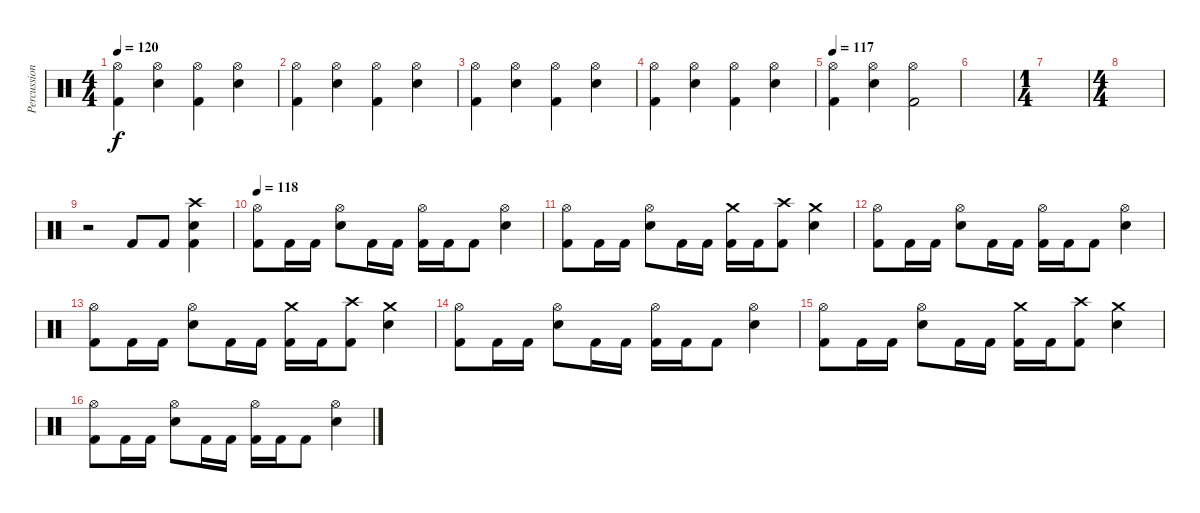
\track ("Percussions" "Percussion") {instrument percussion}
\staff {score}
\articulation defaults
\ts (4 4)
\tempo 120
\clef neutral
\ks c
("Hi-Hat (open)" "Kick (hit) 2").4{dy f} ("Hi-Hat (open)" "Snare (hit) 2").4 ("Hi-Hat (open)" "Kick (hit) 2").4 ("Hi-Hat (open)" "Snare (hit) 2").4 |
("Hi-Hat (open)" "Kick (hit) 2").4 ("Hi-Hat (open)" "Snare (hit) 2").4 ("Hi-Hat (open)" "Kick (hit) 2").4 ("Hi-Hat (open)" "Snare (hit) 2").4 |
("Hi-Hat (open)" "Kick (hit) 2").4 ("Hi-Hat (open)" "Snare (hit) 2").4 ("Hi-Hat (open)" "Kick (hit) 2").4 ("Hi-Hat (open)" "Snare (hit) 2").4 |
("Hi-Hat (open)" "Kick (hit) 2").4 ("Hi-Hat (open)" "Snare (hit) 2").4 ("Hi-Hat (open)" "Kick (hit) 2").4 ("Hi-Hat (open)" "Snare (hit) 2").4 |
\tempo 117
("Hi-Hat (open)" "Kick (hit) 2").4 ("Hi-Hat (open)" "Snare (hit) 2").4 ("Hi-Hat (open)" "Kick (hit) 2").2 |
|
\ts (1 4)
|
\ts (4 4)
|
r.2 "Kick (hit) 2".8 "Kick (hit) 2".8 ("Crash high (hit)" "Snare (hit) 2" "Kick (hit) 2").4 |
\tempo 118
("Hi-Hat (open)" "Kick (hit) 2").8 "Kick (hit) 2".16 "Kick (hit) 2".16 ("Hi-Hat (open)" "Snare (hit) 2").8 "Kick (hit) 2".16 "Kick (hit) 2".16 ("Hi-Hat (open)" "Kick (hit) 2").16 "Kick (hit) 2".16 "Kick (hit) 2".8 ("Hi-Hat (open)" "Snare (hit) 2").4 |
("Hi-Hat (open)" "Kick (hit) 2").8 "Kick (hit) 2".16 "Kick (hit) 2".16 ("Hi-Hat (open)" "Snare (hit) 2").8 "Kick (hit) 2".16 "Kick (hit) 2".16 ("Crash medium (hit)" "Kick (hit) 2").16 "Kick (hit) 2".16 ("Crash high (hit)" "Kick (hit) 2").8 ("Crash medium (hit)" "Snare (hit) 2").4 |
("Hi-Hat (open)" "Kick (hit) 2").8 "Kick (hit) 2".16 "Kick (hit) 2".16 ("Hi-Hat (open)" "Snare (hit) 2").8 "Kick (hit) 2".16 "Kick (hit) 2".16 ("Hi-Hat (open)" "Kick (hit) 2").16 "Kick (hit) 2".16 "Kick (hit) 2".8 ("Hi-Hat (open)" "Snare (hit) 2").4 |
("Hi-Hat (open)" "Kick (hit) 2").8 "Kick (hit) 2".16 "Kick (hit) 2".16 ("Hi-Hat (open)" "Snare (hit) 2").8 "Kick (hit) 2".16 "Kick (hit) 2".16 ("Crash medium (hit)" "Kick (hit) 2").16 "Kick (hit) 2".16 ("Crash high (hit)" "Kick (hit) 2").8 ("Crash medium (hit)" "Snare (hit) 2").4 |
("Hi-Hat (open)" "Kick (hit) 2").8 "Kick (hit) 2".16 "Kick (hit) 2".16 ("Hi-Hat (open)" "Snare (hit) 2").8 "Kick (hit) 2".16 "Kick (hit) 2".16 ("Hi-Hat (open)" "Kick (hit) 2").16 "Kick (hit) 2".16 "Kick (hit) 2".8 ("Hi-Hat (open)" "Snare (hit) 2").4 |
("Hi-Hat (open)" "Kick (hit) 2").8 "Kick (hit) 2".16 "Kick (hit) 2".16 ("Hi-Hat (open)" "Snare (hit) 2").8 "Kick (hit) 2".16 "Kick (hit) 2".16 ("Crash medium (hit)" "Kick (hit) 2").16 "Kick (hit) 2".16 ("Crash high (hit)" "Kick (hit) 2").8 ("Crash medium (hit)" "Snare (hit) 2").4 |
("Hi-Hat (open)" "Kick (hit) 2").8 "Kick (hit) 2".16 "Kick (hit) 2".16 ("Hi-Hat (open)" "Snare (hit) 2").8 "Kick (hit) 2".16 "Kick (hit) 2".16 ("Hi-Hat (open)" "Kick (hit) 2").16 "Kick (hit) 2".16 "Kick (hit) 2".8 ("Hi-Hat (open)" "Snare (hit) 2").4
